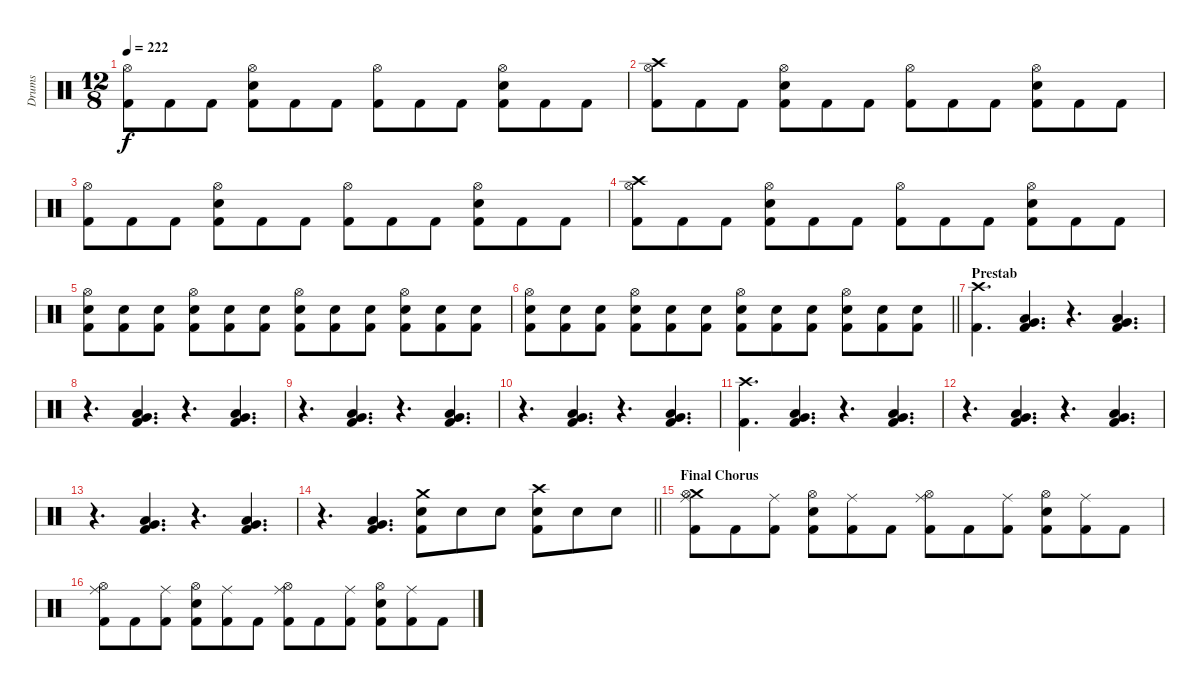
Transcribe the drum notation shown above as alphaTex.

\track ("Drums" "Drums") {instrument percussion}
\staff {score}
\articulation defaults
\ts (12 8)
\tempo 222
\clef neutral
\ks c
("Hi-Hat (open)" "Kick (hit) 2").8{dy f} "Kick (hit) 2".8 "Kick (hit) 2".8 ("Hi-Hat (open)" "Snare (hit) 2" "Kick (hit) 2").8 "Kick (hit) 2".8 "Kick (hit) 2".8 ("Hi-Hat (open)" "Kick (hit) 2").8 "Kick (hit) 2".8 "Kick (hit) 2".8 ("Hi-Hat (open)" "Snare (hit) 2" "Kick (hit) 2").8 "Kick (hit) 2".8 "Kick (hit) 2".8 |
("Crash high (hit)" "Hi-Hat (open)" "Kick (hit) 2").8 "Kick (hit) 2".8 "Kick (hit) 2".8 ("Hi-Hat (open)" "Snare (hit) 2" "Kick (hit) 2").8 "Kick (hit) 2".8 "Kick (hit) 2".8 ("Hi-Hat (open)" "Kick (hit) 2").8 "Kick (hit) 2".8 "Kick (hit) 2".8 ("Hi-Hat (open)" "Snare (hit) 2" "Kick (hit) 2").8 "Kick (hit) 2".8 "Kick (hit) 2".8 |
("Hi-Hat (open)" "Kick (hit) 2").8 "Kick (hit) 2".8 "Kick (hit) 2".8 ("Hi-Hat (open)" "Snare (hit) 2" "Kick (hit) 2").8 "Kick (hit) 2".8 "Kick (hit) 2".8 ("Hi-Hat (open)" "Kick (hit) 2").8 "Kick (hit) 2".8 "Kick (hit) 2".8 ("Hi-Hat (open)" "Snare (hit) 2" "Kick (hit) 2").8 "Kick (hit) 2".8 "Kick (hit) 2".8 |
("Crash high (hit)" "Hi-Hat (open)" "Kick (hit) 2").8 "Kick (hit) 2".8 "Kick (hit) 2".8 ("Hi-Hat (open)" "Snare (hit) 2" "Kick (hit) 2").8 "Kick (hit) 2".8 "Kick (hit) 2".8 ("Hi-Hat (open)" "Kick (hit) 2").8 "Kick (hit) 2".8 "Kick (hit) 2".8 ("Hi-Hat (open)" "Snare (hit) 2" "Kick (hit) 2").8 "Kick (hit) 2".8 "Kick (hit) 2".8 |
("Hi-Hat (open)" "Snare (hit) 2" "Kick (hit) 2").8 ("Snare (hit) 2" "Kick (hit) 2").8 ("Snare (hit) 2" "Kick (hit) 2").8 ("Hi-Hat (open)" "Snare (hit) 2" "Kick (hit) 2").8 ("Snare (hit) 2" "Kick (hit) 2").8 ("Snare (hit) 2" "Kick (hit) 2").8 ("Hi-Hat (open)" "Snare (hit) 2" "Kick (hit) 2").8 ("Snare (hit) 2" "Kick (hit) 2").8 ("Snare (hit) 2" "Kick (hit) 2").8 ("Hi-Hat (open)" "Snare (hit) 2" "Kick (hit) 2").8 ("Snare (hit) 2" "Kick (hit) 2").8 ("Snare (hit) 2" "Kick (hit) 2").8 |
\barLineRight lightlight
("Hi-Hat (open)" "Snare (hit) 2" "Kick (hit) 2").8 ("Snare (hit) 2" "Kick (hit) 2").8 ("Snare (hit) 2" "Kick (hit) 2").8 ("Hi-Hat (open)" "Snare (hit) 2" "Kick (hit) 2").8 ("Snare (hit) 2" "Kick (hit) 2").8 ("Snare (hit) 2" "Kick (hit) 2").8 ("Hi-Hat (open)" "Snare (hit) 2" "Kick (hit) 2").8 ("Snare (hit) 2" "Kick (hit) 2").8 ("Snare (hit) 2" "Kick (hit) 2").8 ("Hi-Hat (open)" "Snare (hit) 2" "Kick (hit) 2").8 ("Snare (hit) 2" "Kick (hit) 2").8 ("Snare (hit) 2" "Kick (hit) 2").8 |
\section ("" "Prestab")
("Crash high (hit)" "Kick (hit) 2").4{d} ("Very Low Tom (hit)" "Low Floor Tom (hit)" "Kick (hit) 2").4{d} r.4{d} ("Very Low Tom (hit)" "Low Floor Tom (hit)" "Kick (hit) 2").4{d} |
r.4{d} ("Very Low Tom (hit)" "Low Floor Tom (hit)" "Kick (hit) 2").4{d} r.4{d} ("Very Low Tom (hit)" "Low Floor Tom (hit)" "Kick (hit) 2").4{d} |
r.4{d} ("Very Low Tom (hit)" "Low Floor Tom (hit)" "Kick (hit) 2").4{d} r.4{d} ("Very Low Tom (hit)" "Low Floor Tom (hit)" "Kick (hit) 2").4{d} |
r.4{d} ("Very Low Tom (hit)" "Low Floor Tom (hit)" "Kick (hit) 2").4{d} r.4{d} ("Very Low Tom (hit)" "Low Floor Tom (hit)" "Kick (hit) 2").4{d} |
("Crash high (hit)" "Kick (hit) 2").4{d} ("Very Low Tom (hit)" "Low Floor Tom (hit)" "Kick (hit) 2").4{d} r.4{d} ("Very Low Tom (hit)" "Low Floor Tom (hit)" "Kick (hit) 2").4{d} |
r.4{d} ("Very Low Tom (hit)" "Low Floor Tom (hit)" "Kick (hit) 2").4{d} r.4{d} ("Very Low Tom (hit)" "Low Floor Tom (hit)" "Kick (hit) 2").4{d} |
r.4{d} ("Very Low Tom (hit)" "Low Floor Tom (hit)" "Kick (hit) 2").4{d} r.4{d} ("Very Low Tom (hit)" "Low Floor Tom (hit)" "Kick (hit) 2").4{d} |
\barLineRight lightlight
r.4{d} ("Very Low Tom (hit)" "Low Floor Tom (hit)" "Kick (hit) 2").4{d} ("Crash medium (hit)" "Snare (hit) 2" "Kick (hit) 2").8 "Snare (hit) 2".8 "Snare (hit) 2".8 ("Crash high (hit)" "Snare (hit) 2" "Kick (hit) 2").8 "Snare (hit) 2".8 "Snare (hit) 2".8 |
\section ("" "Final Chorus")
("Crash medium (hit)" "Hi-Hat (open)" "Ride (middle)" "Kick (hit) 2").8 "Kick (hit) 2".8 ("Ride (middle)" "Kick (hit) 2").8 ("Hi-Hat (open)" "Snare (hit) 2" "Kick (hit) 2").8 ("Ride (middle)" "Kick (hit) 2").8 "Kick (hit) 2".8 ("Hi-Hat (open)" "Ride (middle)" "Kick (hit) 2").8 "Kick (hit) 2".8 ("Ride (middle)" "Kick (hit) 2").8 ("Hi-Hat (open)" "Snare (hit) 2" "Kick (hit) 2").8 ("Ride (middle)" "Kick (hit) 2").8 "Kick (hit) 2".8 |
("Hi-Hat (open)" "Ride (middle)" "Kick (hit) 2").8 "Kick (hit) 2".8 ("Ride (middle)" "Kick (hit) 2").8 ("Hi-Hat (open)" "Snare (hit) 2" "Kick (hit) 2").8 ("Ride (middle)" "Kick (hit) 2").8 "Kick (hit) 2".8 ("Hi-Hat (open)" "Ride (middle)" "Kick (hit) 2").8 "Kick (hit) 2".8 ("Ride (middle)" "Kick (hit) 2").8 ("Hi-Hat (open)" "Snare (hit) 2" "Kick (hit) 2").8 ("Ride (middle)" "Kick (hit) 2").8 "Kick (hit) 2".8
